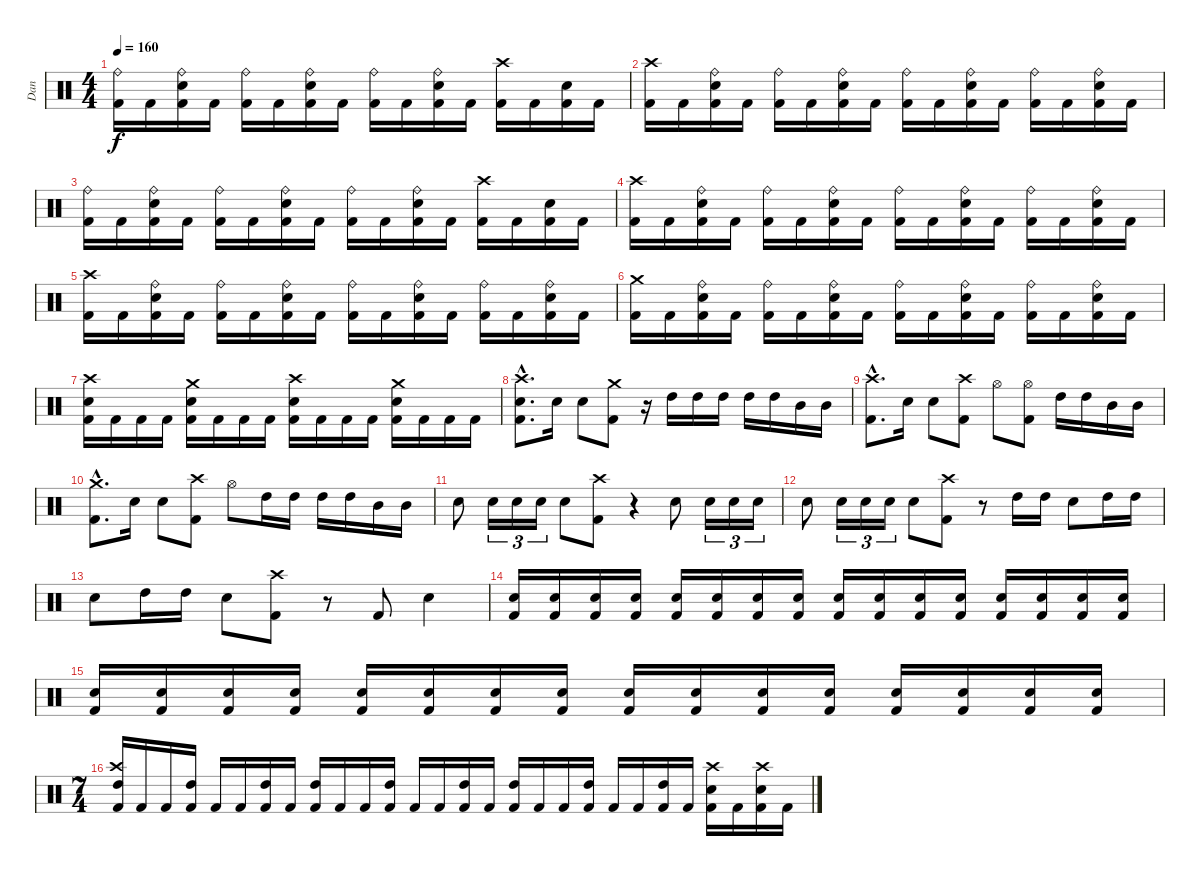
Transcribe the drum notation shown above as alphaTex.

\track ("Dan " "Dan ") {instrument percussion}
\staff {score}
\articulation defaults
\ts (4 4)
\tempo 160
\clef neutral
\ks c
("Kick (hit) 2" "Ride (bell)").16{dy f} "Kick (hit) 2".16 ("Metronome (bell)" "Kick (hit) 2" "Ride (bell)").16 "Kick (hit) 2".16 ("Kick (hit) 2" "Ride (bell)").16 "Kick (hit) 2".16 ("Metronome (bell)" "Kick (hit) 2" "Ride (bell)").16 "Kick (hit) 2".16 ("Kick (hit) 2" "Ride (bell)").16 "Kick (hit) 2".16 ("Metronome (bell)" "Kick (hit) 2" "Ride (bell)").16 "Kick (hit) 2".16 ("Kick (hit) 2" "Crash high (hit)").16 "Kick (hit) 2".16 ("Metronome (bell)" "Kick (hit) 2").16 "Kick (hit) 2".16 |
("Kick (hit) 2" "Crash high (hit)").16 "Kick (hit) 2".16 ("Metronome (bell)" "Kick (hit) 2" "Ride (bell)").16 "Kick (hit) 2".16 ("Kick (hit) 2" "Ride (bell)").16 "Kick (hit) 2".16 ("Metronome (bell)" "Kick (hit) 2" "Ride (bell)").16 "Kick (hit) 2".16 ("Kick (hit) 2" "Ride (bell)").16 "Kick (hit) 2".16 ("Metronome (bell)" "Kick (hit) 2" "Ride (bell)").16 "Kick (hit) 2".16 ("Kick (hit) 2" "Ride (bell)").16 "Kick (hit) 2".16 ("Metronome (bell)" "Kick (hit) 2" "Ride (bell)").16 "Kick (hit) 2".16 |
("Kick (hit) 2" "Ride (bell)").16 "Kick (hit) 2".16 ("Metronome (bell)" "Kick (hit) 2" "Ride (bell)").16 "Kick (hit) 2".16 ("Kick (hit) 2" "Ride (bell)").16 "Kick (hit) 2".16 ("Metronome (bell)" "Kick (hit) 2" "Ride (bell)").16 "Kick (hit) 2".16 ("Kick (hit) 2" "Ride (bell)").16 "Kick (hit) 2".16 ("Metronome (bell)" "Kick (hit) 2" "Ride (bell)").16 "Kick (hit) 2".16 ("Kick (hit) 2" "Crash high (hit)").16 "Kick (hit) 2".16 ("Metronome (bell)" "Kick (hit) 2").16 "Kick (hit) 2".16 |
("Kick (hit) 2" "Crash high (hit)").16 "Kick (hit) 2".16 ("Metronome (bell)" "Kick (hit) 2" "Ride (bell)").16 "Kick (hit) 2".16 ("Kick (hit) 2" "Ride (bell)").16 "Kick (hit) 2".16 ("Metronome (bell)" "Kick (hit) 2" "Ride (bell)").16 "Kick (hit) 2".16 ("Kick (hit) 2" "Ride (bell)").16 "Kick (hit) 2".16 ("Metronome (bell)" "Kick (hit) 2" "Ride (bell)").16 "Kick (hit) 2".16 ("Kick (hit) 2" "Ride (bell)").16 "Kick (hit) 2".16 ("Metronome (bell)" "Kick (hit) 2" "Ride (bell)").16 "Kick (hit) 2".16 |
("Kick (hit) 2" "Crash high (hit)").16 "Kick (hit) 2".16 ("Metronome (bell)" "Kick (hit) 2" "Ride (bell)").16 "Kick (hit) 2".16 ("Kick (hit) 2" "Ride (bell)").16 "Kick (hit) 2".16 ("Metronome (bell)" "Kick (hit) 2" "Ride (bell)").16 "Kick (hit) 2".16 ("Kick (hit) 2" "Ride (bell)").16 "Kick (hit) 2".16 ("Metronome (bell)" "Kick (hit) 2" "Ride (bell)").16 "Kick (hit) 2".16 ("Kick (hit) 2" "Ride (bell)").16 "Kick (hit) 2".16 ("Metronome (bell)" "Kick (hit) 2" "Ride (bell)").16 "Kick (hit) 2".16 |
("Kick (hit) 2" "Crash medium (hit)").16 "Kick (hit) 2".16 ("Metronome (bell)" "Kick (hit) 2" "Ride (bell)").16 "Kick (hit) 2".16 ("Kick (hit) 2" "Ride (bell)").16 "Kick (hit) 2".16 ("Metronome (bell)" "Kick (hit) 2" "Ride (bell)").16 "Kick (hit) 2".16 ("Kick (hit) 2" "Ride (bell)").16 "Kick (hit) 2".16 ("Metronome (bell)" "Kick (hit) 2" "Ride (bell)").16 "Kick (hit) 2".16 ("Kick (hit) 2" "Ride (bell)").16 "Kick (hit) 2".16 ("Metronome (bell)" "Kick (hit) 2" "Ride (bell)").16 "Kick (hit) 2".16 |
("Metronome (bell)" "Kick (hit) 2" "Crash high (hit)").16 "Kick (hit) 2".16 "Kick (hit) 2".16 "Kick (hit) 2".16 ("Metronome (bell)" "Kick (hit) 2" "Crash medium (hit)").16 "Kick (hit) 2".16 "Kick (hit) 2".16 "Kick (hit) 2".16 ("Metronome (bell)" "Kick (hit) 2" "Crash high (hit)").16 "Kick (hit) 2".16 "Kick (hit) 2".16 "Kick (hit) 2".16 ("Metronome (bell)" "Kick (hit) 2" "Crash medium (hit)").16 "Kick (hit) 2".16 "Kick (hit) 2".16 "Kick (hit) 2".16 |
("Metronome (bell)"{hac} "Kick (hit) 2"{hac} "Crash high (hit)"{hac}).8{d} "Metronome (bell)".16 "Metronome (bell)".8 ("Kick (hit) 2" "Crash medium (hit)").8 r.16 "High Tom (hit)".16 "High Tom (hit)".16 "High Tom (hit)".16 "High Tom (hit)".16 "High Tom (hit)".16 "Mid Tom (hit)".16 "Mid Tom (hit)".16 |
("Kick (hit) 2"{hac} "Crash high (hit)"{hac}).8{d} "Metronome (bell)".16 "Metronome (bell)".8 ("Kick (hit) 2" "Crash high (hit)").8 "Hi-Hat (open)".8 ("Kick (hit) 2" "Hi-Hat (open)").8 "High Tom (hit)".16 "High Tom (hit)".16 "Mid Tom (hit)".16 "Mid Tom (hit)".16 |
("Kick (hit) 2"{hac} "Crash medium (hit)"{hac}).8{d} "Metronome (bell)".16 "Metronome (bell)".8 ("Kick (hit) 2" "Crash high (hit)").8 "Hi-Hat (open)".8 "High Tom (hit)".16 "High Tom (hit)".16 "High Tom (hit)".16 "High Tom (hit)".16 "Mid Tom (hit)".16 "Mid Tom (hit)".16 |
"Metronome (bell)".8 "Metronome (bell)".16{tu (3 2)} "Metronome (bell)".16{tu (3 2)} "Metronome (bell)".16{tu (3 2)} "Metronome (bell)".8 ("Kick (hit) 2" "Crash high (hit)").8 r.4 "Metronome (bell)".8 "Metronome (bell)".16{tu (3 2)} "Metronome (bell)".16{tu (3 2)} "Metronome (bell)".16{tu (3 2)} |
"Metronome (bell)".8 "Metronome (bell)".16{tu (3 2)} "Metronome (bell)".16{tu (3 2)} "Metronome (bell)".16{tu (3 2)} "Metronome (bell)".8 ("Kick (hit) 2" "Crash high (hit)").8 r.8 "High Tom (hit)".16 "High Tom (hit)".16 "Metronome (bell)".8 "High Tom (hit)".16 "High Tom (hit)".16 |
"Metronome (bell)".8 "High Tom (hit)".16 "High Tom (hit)".16 "Metronome (bell)".8 ("Kick (hit) 2" "Crash high (hit)").8 r.8 "Kick (hit) 2".8 "Metronome (bell)".4 |
("Metronome (bell)" "Kick (hit) 2").16 ("Metronome (bell)" "Kick (hit) 2").16 ("Metronome (bell)" "Kick (hit) 2").16 ("Metronome (bell)" "Kick (hit) 2").16 ("Metronome (bell)" "Kick (hit) 2").16 ("Metronome (bell)" "Kick (hit) 2").16 ("Metronome (bell)" "Kick (hit) 2").16 ("Metronome (bell)" "Kick (hit) 2").16 ("Metronome (bell)" "Kick (hit) 2").16 ("Metronome (bell)" "Kick (hit) 2").16 ("Metronome (bell)" "Kick (hit) 2").16 ("Metronome (bell)" "Kick (hit) 2").16 ("Metronome (bell)" "Kick (hit) 2").16 ("Metronome (bell)" "Kick (hit) 2").16 ("Metronome (bell)" "Kick (hit) 2").16 ("Metronome (bell)" "Kick (hit) 2").16 |
("Metronome (bell)" "Kick (hit) 2").16 ("Metronome (bell)" "Kick (hit) 2").16 ("Metronome (bell)" "Kick (hit) 2").16 ("Metronome (bell)" "Kick (hit) 2").16 ("Metronome (bell)" "Kick (hit) 2").16 ("Metronome (bell)" "Kick (hit) 2").16 ("Metronome (bell)" "Kick (hit) 2").16 ("Metronome (bell)" "Kick (hit) 2").16 ("Metronome (bell)" "Kick (hit) 2").16 ("Metronome (bell)" "Kick (hit) 2").16 ("Metronome (bell)" "Kick (hit) 2").16 ("Metronome (bell)" "Kick (hit) 2").16 ("Metronome (bell)" "Kick (hit) 2").16 ("Metronome (bell)" "Kick (hit) 2").16 ("Metronome (bell)" "Kick (hit) 2").16 ("Metronome (bell)" "Kick (hit) 2").16 |
\ts (7 4)
("Kick (hit) 2" "High Tom (hit)" "Crash high (hit)").16 "Kick (hit) 2".16 "Kick (hit) 2".16 ("Kick (hit) 2" "High Tom (hit)").16 "Kick (hit) 2".16 "Kick (hit) 2".16 ("Kick (hit) 2" "High Tom (hit)").16 "Kick (hit) 2".16 ("Kick (hit) 2" "High Tom (hit)").16 "Kick (hit) 2".16 "Kick (hit) 2".16 ("Kick (hit) 2" "High Tom (hit)").16 "Kick (hit) 2".16 "Kick (hit) 2".16 ("Kick (hit) 2" "High Tom (hit)").16 "Kick (hit) 2".16 ("Kick (hit) 2" "High Tom (hit)").16 "Kick (hit) 2".16 "Kick (hit) 2".16 ("Kick (hit) 2" "High Tom (hit)").16 "Kick (hit) 2".16 "Kick (hit) 2".16 ("Kick (hit) 2" "High Tom (hit)").16 "Kick (hit) 2".16 ("Metronome (bell)" "Kick (hit) 2" "Crash high (hit)").16 "Kick (hit) 2".16 ("Metronome (bell)" "Kick (hit) 2" "Crash high (hit)").16 "Kick (hit) 2".16
